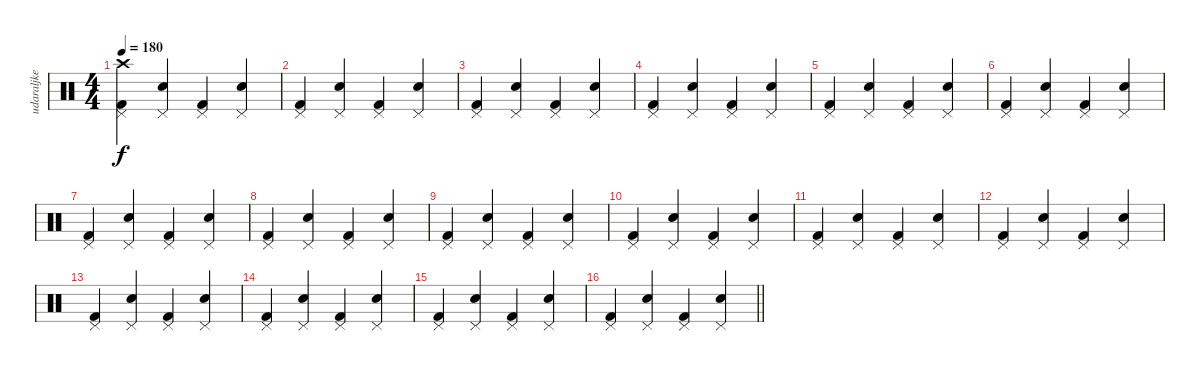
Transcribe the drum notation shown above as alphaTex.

\track ("udaraljke" "udaraljke") {instrument percussion}
\staff {score}
\articulation defaults
\ts (4 4)
\tempo 180
\clef neutral
\ks c
("Crash high (hit)" "Pedal Hi-Hat (hit)" "Kick (hit) 2").4{dy f} ("Pedal Hi-Hat (hit)" "Snare (hit) 2").4 ("Pedal Hi-Hat (hit)" "Kick (hit) 2").4 ("Pedal Hi-Hat (hit)" "Snare (hit) 2").4 |
("Pedal Hi-Hat (hit)" "Kick (hit) 2").4 ("Pedal Hi-Hat (hit)" "Snare (hit) 2").4 ("Pedal Hi-Hat (hit)" "Kick (hit) 2").4 ("Pedal Hi-Hat (hit)" "Snare (hit) 2").4 |
("Pedal Hi-Hat (hit)" "Kick (hit) 2").4 ("Pedal Hi-Hat (hit)" "Snare (hit) 2").4 ("Pedal Hi-Hat (hit)" "Kick (hit) 2").4 ("Pedal Hi-Hat (hit)" "Snare (hit) 2").4 |
("Pedal Hi-Hat (hit)" "Kick (hit) 2").4 ("Pedal Hi-Hat (hit)" "Snare (hit) 2").4 ("Pedal Hi-Hat (hit)" "Kick (hit) 2").4 ("Pedal Hi-Hat (hit)" "Snare (hit) 2").4 |
("Pedal Hi-Hat (hit)" "Kick (hit) 2").4 ("Pedal Hi-Hat (hit)" "Snare (hit) 2").4 ("Pedal Hi-Hat (hit)" "Kick (hit) 2").4 ("Pedal Hi-Hat (hit)" "Snare (hit) 2").4 |
("Pedal Hi-Hat (hit)" "Kick (hit) 2").4 ("Pedal Hi-Hat (hit)" "Snare (hit) 2").4 ("Pedal Hi-Hat (hit)" "Kick (hit) 2").4 ("Pedal Hi-Hat (hit)" "Snare (hit) 2").4 |
("Pedal Hi-Hat (hit)" "Kick (hit) 2").4 ("Pedal Hi-Hat (hit)" "Snare (hit) 2").4 ("Pedal Hi-Hat (hit)" "Kick (hit) 2").4 ("Pedal Hi-Hat (hit)" "Snare (hit) 2").4 |
("Pedal Hi-Hat (hit)" "Kick (hit) 2").4 ("Pedal Hi-Hat (hit)" "Snare (hit) 2").4 ("Pedal Hi-Hat (hit)" "Kick (hit) 2").4 ("Pedal Hi-Hat (hit)" "Snare (hit) 2").4 |
("Pedal Hi-Hat (hit)" "Kick (hit) 2").4 ("Pedal Hi-Hat (hit)" "Snare (hit) 2").4 ("Pedal Hi-Hat (hit)" "Kick (hit) 2").4 ("Pedal Hi-Hat (hit)" "Snare (hit) 2").4 |
("Pedal Hi-Hat (hit)" "Kick (hit) 2").4 ("Pedal Hi-Hat (hit)" "Snare (hit) 2").4 ("Pedal Hi-Hat (hit)" "Kick (hit) 2").4 ("Pedal Hi-Hat (hit)" "Snare (hit) 2").4 |
("Pedal Hi-Hat (hit)" "Kick (hit) 2").4 ("Pedal Hi-Hat (hit)" "Snare (hit) 2").4 ("Pedal Hi-Hat (hit)" "Kick (hit) 2").4 ("Pedal Hi-Hat (hit)" "Snare (hit) 2").4 |
("Pedal Hi-Hat (hit)" "Kick (hit) 2").4 ("Pedal Hi-Hat (hit)" "Snare (hit) 2").4 ("Pedal Hi-Hat (hit)" "Kick (hit) 2").4 ("Pedal Hi-Hat (hit)" "Snare (hit) 2").4 |
("Pedal Hi-Hat (hit)" "Kick (hit) 2").4 ("Pedal Hi-Hat (hit)" "Snare (hit) 2").4 ("Pedal Hi-Hat (hit)" "Kick (hit) 2").4 ("Pedal Hi-Hat (hit)" "Snare (hit) 2").4 |
("Pedal Hi-Hat (hit)" "Kick (hit) 2").4 ("Pedal Hi-Hat (hit)" "Snare (hit) 2").4 ("Pedal Hi-Hat (hit)" "Kick (hit) 2").4 ("Pedal Hi-Hat (hit)" "Snare (hit) 2").4 |
("Pedal Hi-Hat (hit)" "Kick (hit) 2").4 ("Pedal Hi-Hat (hit)" "Snare (hit) 2").4 ("Pedal Hi-Hat (hit)" "Kick (hit) 2").4 ("Pedal Hi-Hat (hit)" "Snare (hit) 2").4 |
\barLineRight lightlight
("Pedal Hi-Hat (hit)" "Kick (hit) 2").4 ("Pedal Hi-Hat (hit)" "Snare (hit) 2").4 ("Pedal Hi-Hat (hit)" "Kick (hit) 2").4 ("Pedal Hi-Hat (hit)" "Snare (hit) 2").4
